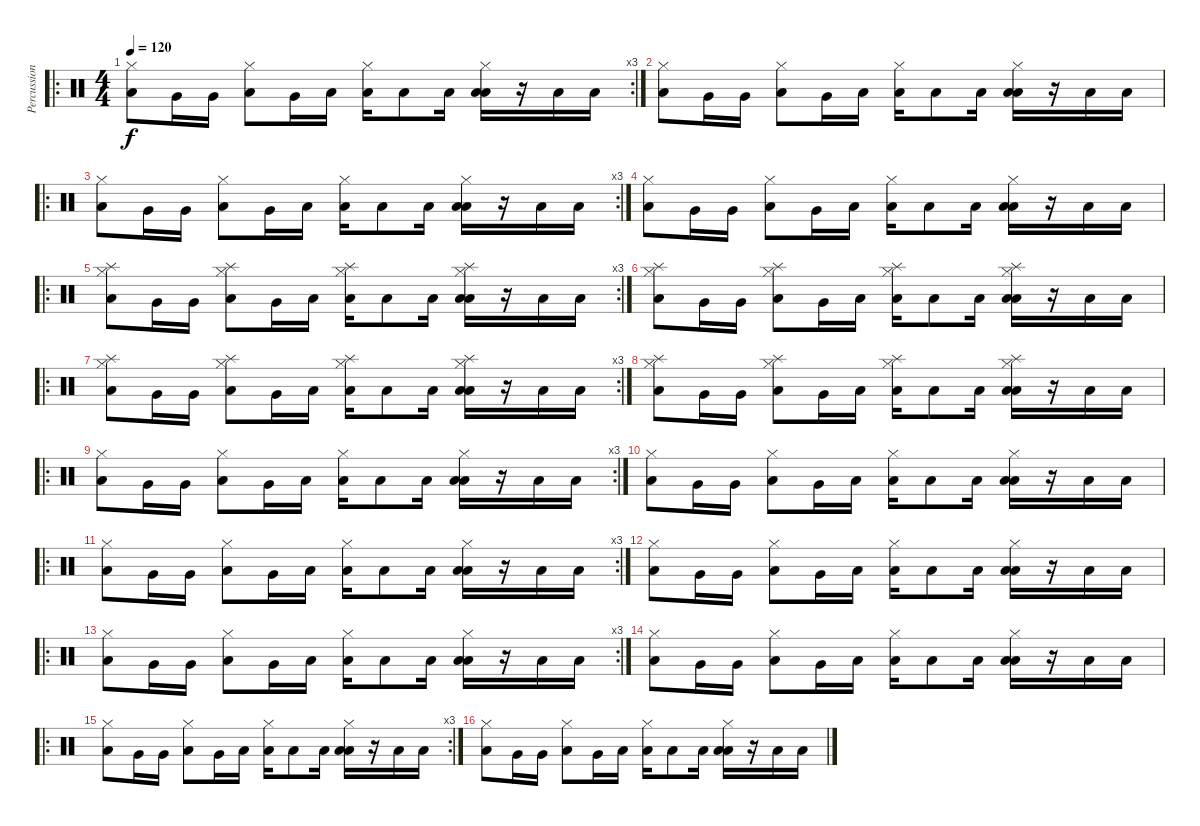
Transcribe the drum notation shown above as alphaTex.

\track ("Percussion" "Percussion") {instrument percussion}
\staff {score}
\articulation defaults
\ro
\rc 3
\ts (4 4)
\tempo 120
\clef neutral
\ks c
("Hi-Hat (closed)" "Low Floor Tom (hit)").8{dy f} "Very Low Tom (hit)".16 "Very Low Tom (hit)".16 ("Hi-Hat (closed)" "Low Floor Tom (hit)").8 "Very Low Tom (hit)".16 "Low Tom (hit)".16 ("Hi-Hat (closed)" "Low Floor Tom (hit)").16 "Low Tom (hit)".8 "Low Tom (hit)".16 ("Low Tom (hit)" "Hi-Hat (closed)" "Low Floor Tom (hit)").16 r.16 "Low Tom (hit)".16 "Low Tom (hit)".16 |
("Hi-Hat (closed)" "Low Floor Tom (hit)").8 "Very Low Tom (hit)".16 "Very Low Tom (hit)".16 ("Hi-Hat (closed)" "Low Floor Tom (hit)").8 "Very Low Tom (hit)".16 "Low Tom (hit)".16 ("Hi-Hat (closed)" "Low Floor Tom (hit)").16 "Low Tom (hit)".8 "Low Tom (hit)".16 ("Low Tom (hit)" "Hi-Hat (closed)" "Low Floor Tom (hit)").16 r.16 "Low Tom (hit)".16 "Low Tom (hit)".16 |
\ro
\rc 3
("Hi-Hat (closed)" "Low Floor Tom (hit)").8 "Very Low Tom (hit)".16 "Very Low Tom (hit)".16 ("Hi-Hat (closed)" "Low Floor Tom (hit)").8 "Very Low Tom (hit)".16 "Low Tom (hit)".16 ("Hi-Hat (closed)" "Low Floor Tom (hit)").16 "Low Tom (hit)".8 "Low Tom (hit)".16 ("Low Tom (hit)" "Hi-Hat (closed)" "Low Floor Tom (hit)").16 r.16 "Low Tom (hit)".16 "Low Tom (hit)".16 |
("Hi-Hat (closed)" "Low Floor Tom (hit)").8 "Very Low Tom (hit)".16 "Very Low Tom (hit)".16 ("Hi-Hat (closed)" "Low Floor Tom (hit)").8 "Very Low Tom (hit)".16 "Low Tom (hit)".16 ("Hi-Hat (closed)" "Low Floor Tom (hit)").16 "Low Tom (hit)".8 "Low Tom (hit)".16 ("Low Tom (hit)" "Hi-Hat (closed)" "Low Floor Tom (hit)").16 r.16 "Low Tom (hit)".16 "Low Tom (hit)".16 |
\ro
\rc 3
("Hi-Hat (closed)" "Low Floor Tom (hit)" "Splash (hit)").8 "Very Low Tom (hit)".16 "Very Low Tom (hit)".16 ("Hi-Hat (closed)" "Low Floor Tom (hit)" "Splash (hit)").8 "Very Low Tom (hit)".16 "Low Tom (hit)".16 ("Hi-Hat (closed)" "Low Floor Tom (hit)" "Splash (hit)").16 "Low Tom (hit)".8 "Low Tom (hit)".16 ("Low Tom (hit)" "Hi-Hat (closed)" "Low Floor Tom (hit)" "Splash (hit)").16 r.16 "Low Tom (hit)".16 "Low Tom (hit)".16 |
("Hi-Hat (closed)" "Low Floor Tom (hit)" "Splash (hit)").8 "Very Low Tom (hit)".16 "Very Low Tom (hit)".16 ("Hi-Hat (closed)" "Low Floor Tom (hit)" "Splash (hit)").8 "Very Low Tom (hit)".16 "Low Tom (hit)".16 ("Hi-Hat (closed)" "Low Floor Tom (hit)" "Splash (hit)").16 "Low Tom (hit)".8 "Low Tom (hit)".16 ("Low Tom (hit)" "Hi-Hat (closed)" "Low Floor Tom (hit)" "Splash (hit)").16 r.16 "Low Tom (hit)".16 "Low Tom (hit)".16 |
\ro
\rc 3
("Hi-Hat (closed)" "Low Floor Tom (hit)" "Splash (hit)").8 "Very Low Tom (hit)".16 "Very Low Tom (hit)".16 ("Hi-Hat (closed)" "Low Floor Tom (hit)" "Splash (hit)").8 "Very Low Tom (hit)".16 "Low Tom (hit)".16 ("Hi-Hat (closed)" "Low Floor Tom (hit)" "Splash (hit)").16 "Low Tom (hit)".8 "Low Tom (hit)".16 ("Low Tom (hit)" "Hi-Hat (closed)" "Low Floor Tom (hit)" "Splash (hit)").16 r.16 "Low Tom (hit)".16 "Low Tom (hit)".16 |
("Hi-Hat (closed)" "Low Floor Tom (hit)" "Splash (hit)").8 "Very Low Tom (hit)".16 "Very Low Tom (hit)".16 ("Hi-Hat (closed)" "Low Floor Tom (hit)" "Splash (hit)").8 "Very Low Tom (hit)".16 "Low Tom (hit)".16 ("Hi-Hat (closed)" "Low Floor Tom (hit)" "Splash (hit)").16 "Low Tom (hit)".8 "Low Tom (hit)".16 ("Low Tom (hit)" "Hi-Hat (closed)" "Low Floor Tom (hit)" "Splash (hit)").16 r.16 "Low Tom (hit)".16 "Low Tom (hit)".16 |
\ro
\rc 3
("Hi-Hat (closed)" "Low Floor Tom (hit)").8 "Very Low Tom (hit)".16 "Very Low Tom (hit)".16 ("Hi-Hat (closed)" "Low Floor Tom (hit)").8 "Very Low Tom (hit)".16 "Low Tom (hit)".16 ("Hi-Hat (closed)" "Low Floor Tom (hit)").16 "Low Tom (hit)".8 "Low Tom (hit)".16 ("Low Tom (hit)" "Hi-Hat (closed)" "Low Floor Tom (hit)").16 r.16 "Low Tom (hit)".16 "Low Tom (hit)".16 |
("Hi-Hat (closed)" "Low Floor Tom (hit)").8 "Very Low Tom (hit)".16 "Very Low Tom (hit)".16 ("Hi-Hat (closed)" "Low Floor Tom (hit)").8 "Very Low Tom (hit)".16 "Low Tom (hit)".16 ("Hi-Hat (closed)" "Low Floor Tom (hit)").16 "Low Tom (hit)".8 "Low Tom (hit)".16 ("Low Tom (hit)" "Hi-Hat (closed)" "Low Floor Tom (hit)").16 r.16 "Low Tom (hit)".16 "Low Tom (hit)".16 |
\ro
\rc 3
("Hi-Hat (closed)" "Low Floor Tom (hit)").8 "Very Low Tom (hit)".16 "Very Low Tom (hit)".16 ("Hi-Hat (closed)" "Low Floor Tom (hit)").8 "Very Low Tom (hit)".16 "Low Tom (hit)".16 ("Hi-Hat (closed)" "Low Floor Tom (hit)").16 "Low Tom (hit)".8 "Low Tom (hit)".16 ("Low Tom (hit)" "Hi-Hat (closed)" "Low Floor Tom (hit)").16 r.16 "Low Tom (hit)".16 "Low Tom (hit)".16 |
("Hi-Hat (closed)" "Low Floor Tom (hit)").8 "Very Low Tom (hit)".16 "Very Low Tom (hit)".16 ("Hi-Hat (closed)" "Low Floor Tom (hit)").8 "Very Low Tom (hit)".16 "Low Tom (hit)".16 ("Hi-Hat (closed)" "Low Floor Tom (hit)").16 "Low Tom (hit)".8 "Low Tom (hit)".16 ("Low Tom (hit)" "Hi-Hat (closed)" "Low Floor Tom (hit)").16 r.16 "Low Tom (hit)".16 "Low Tom (hit)".16 |
\ro
\rc 3
("Hi-Hat (closed)" "Low Floor Tom (hit)").8 "Very Low Tom (hit)".16 "Very Low Tom (hit)".16 ("Hi-Hat (closed)" "Low Floor Tom (hit)").8 "Very Low Tom (hit)".16 "Low Tom (hit)".16 ("Hi-Hat (closed)" "Low Floor Tom (hit)").16 "Low Tom (hit)".8 "Low Tom (hit)".16 ("Low Tom (hit)" "Hi-Hat (closed)" "Low Floor Tom (hit)").16 r.16 "Low Tom (hit)".16 "Low Tom (hit)".16 |
("Hi-Hat (closed)" "Low Floor Tom (hit)").8 "Very Low Tom (hit)".16 "Very Low Tom (hit)".16 ("Hi-Hat (closed)" "Low Floor Tom (hit)").8 "Very Low Tom (hit)".16 "Low Tom (hit)".16 ("Hi-Hat (closed)" "Low Floor Tom (hit)").16 "Low Tom (hit)".8 "Low Tom (hit)".16 ("Low Tom (hit)" "Hi-Hat (closed)" "Low Floor Tom (hit)").16 r.16 "Low Tom (hit)".16 "Low Tom (hit)".16 |
\ro
\rc 3
("Hi-Hat (closed)" "Low Floor Tom (hit)").8 "Very Low Tom (hit)".16 "Very Low Tom (hit)".16 ("Hi-Hat (closed)" "Low Floor Tom (hit)").8 "Very Low Tom (hit)".16 "Low Tom (hit)".16 ("Hi-Hat (closed)" "Low Floor Tom (hit)").16 "Low Tom (hit)".8 "Low Tom (hit)".16 ("Low Tom (hit)" "Hi-Hat (closed)" "Low Floor Tom (hit)").16 r.16 "Low Tom (hit)".16 "Low Tom (hit)".16 |
("Hi-Hat (closed)" "Low Floor Tom (hit)").8 "Very Low Tom (hit)".16 "Very Low Tom (hit)".16 ("Hi-Hat (closed)" "Low Floor Tom (hit)").8 "Very Low Tom (hit)".16 "Low Tom (hit)".16 ("Hi-Hat (closed)" "Low Floor Tom (hit)").16 "Low Tom (hit)".8 "Low Tom (hit)".16 ("Low Tom (hit)" "Hi-Hat (closed)" "Low Floor Tom (hit)").16 r.16 "Low Tom (hit)".16 "Low Tom (hit)".16
